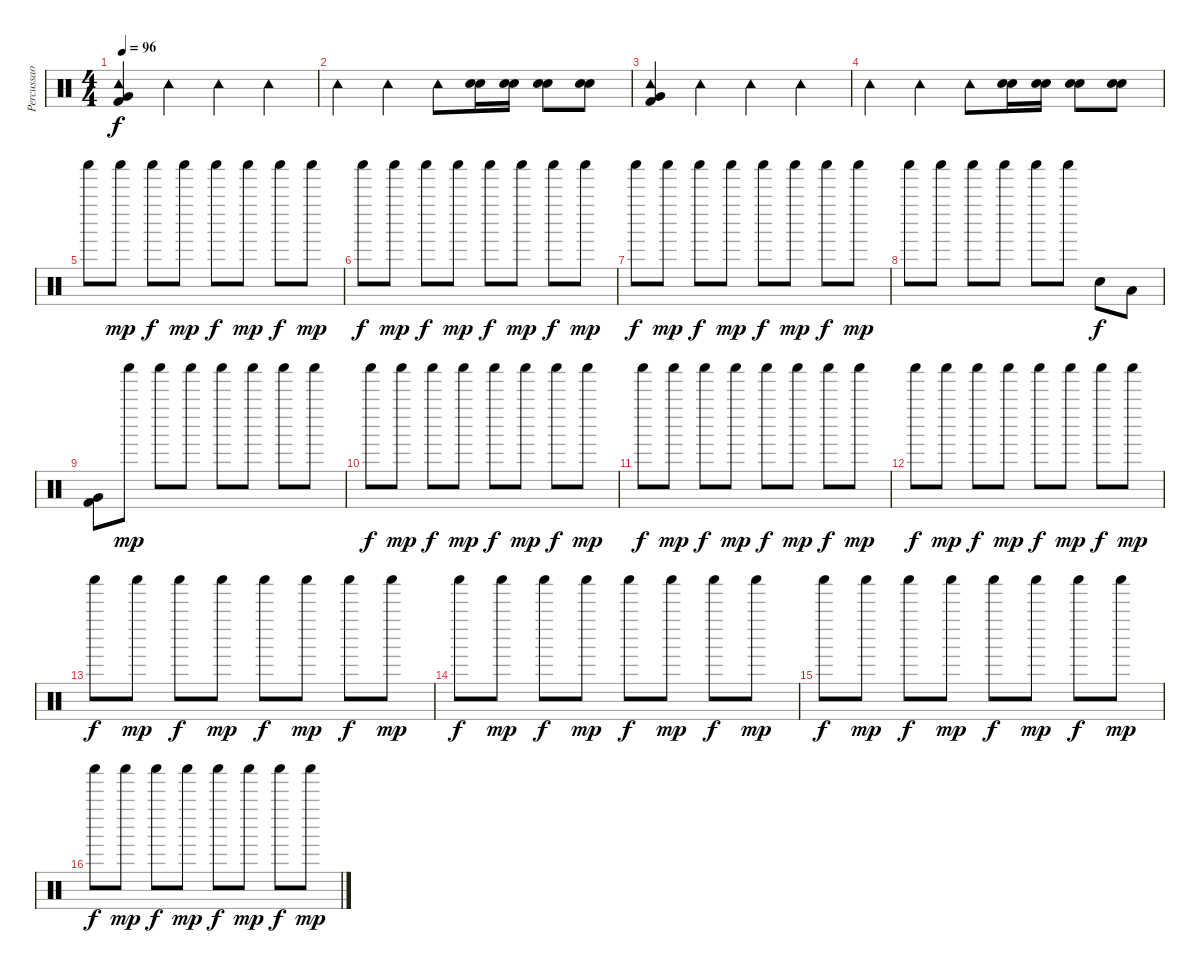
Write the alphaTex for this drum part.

\track ("Percussao" "Percussao") {instrument percussion}
\staff {score}
\articulation defaults
\ts (4 4)
\tempo 96
\clef neutral
\ks c
("Tambourine (hit)" "Very Low Tom (hit)" "Kick (hit) 2").4{dy f} "Tambourine (hit)".4 "Tambourine (hit)".4 "Tambourine (hit)".4 |
"Tambourine (hit)".4 "Tambourine (hit)".4 "Tambourine (hit)".8 ("Electric Snare (hit)" "Snare (hit) 2").16 ("Electric Snare (hit)" "Snare (hit) 2").16 ("Electric Snare (hit)" "Snare (hit) 2").8 ("Electric Snare (hit)" "Snare (hit) 2").8 |
("Tambourine (hit)" "Very Low Tom (hit)" "Kick (hit) 2").4 "Tambourine (hit)".4 "Tambourine (hit)".4 "Tambourine (hit)".4 |
"Tambourine (hit)".4 "Tambourine (hit)".4 "Tambourine (hit)".8 ("Electric Snare (hit)" "Snare (hit) 2").16 ("Electric Snare (hit)" "Snare (hit) 2").16 ("Electric Snare (hit)" "Snare (hit) 2").8 ("Electric Snare (hit)" "Snare (hit) 2").8 |
"Shaker (hit)".8{volume 4} "Shaker (hit)".8{dy mp} "Shaker (hit)".8{dy f} "Shaker (hit)".8{dy mp} "Shaker (hit)".8{dy f} "Shaker (hit)".8{dy mp} "Shaker (hit)".8{dy f} "Shaker (hit)".8{dy mp} |
"Shaker (hit)".8{dy f volume 4} "Shaker (hit)".8{dy mp} "Shaker (hit)".8{dy f} "Shaker (hit)".8{dy mp} "Shaker (hit)".8{dy f} "Shaker (hit)".8{dy mp} "Shaker (hit)".8{dy f} "Shaker (hit)".8{dy mp} |
"Shaker (hit)".8{dy f volume 4} "Shaker (hit)".8{dy mp} "Shaker (hit)".8{dy f} "Shaker (hit)".8{dy mp} "Shaker (hit)".8{dy f} "Shaker (hit)".8{dy mp} "Shaker (hit)".8{dy f} "Shaker (hit)".8{dy mp} |
"Shaker (hit)".8 "Shaker (hit)".8 "Shaker (hit)".8 "Shaker (hit)".8 "Shaker (hit)".8 "Shaker (hit)".8 "Electric Snare (hit)".8{dy f volume 13} "Low Tom (hit)".8 |
("Very Low Tom (hit)" "Kick (hit) 2").8 "Shaker (hit)".8{dy mp volume 4} "Shaker (hit)".8 "Shaker (hit)".8 "Shaker (hit)".8 "Shaker (hit)".8 "Shaker (hit)".8 "Shaker (hit)".8 |
"Shaker (hit)".8{dy f volume 4} "Shaker (hit)".8{dy mp} "Shaker (hit)".8{dy f} "Shaker (hit)".8{dy mp} "Shaker (hit)".8{dy f} "Shaker (hit)".8{dy mp} "Shaker (hit)".8{dy f} "Shaker (hit)".8{dy mp} |
"Shaker (hit)".8{dy f volume 4} "Shaker (hit)".8{dy mp} "Shaker (hit)".8{dy f} "Shaker (hit)".8{dy mp} "Shaker (hit)".8{dy f} "Shaker (hit)".8{dy mp} "Shaker (hit)".8{dy f} "Shaker (hit)".8{dy mp} |
"Shaker (hit)".8{dy f volume 4} "Shaker (hit)".8{dy mp} "Shaker (hit)".8{dy f} "Shaker (hit)".8{dy mp} "Shaker (hit)".8{dy f} "Shaker (hit)".8{dy mp} "Shaker (hit)".8{dy f} "Shaker (hit)".8{dy mp} |
"Shaker (hit)".8{dy f volume 4} "Shaker (hit)".8{dy mp} "Shaker (hit)".8{dy f} "Shaker (hit)".8{dy mp} "Shaker (hit)".8{dy f} "Shaker (hit)".8{dy mp} "Shaker (hit)".8{dy f} "Shaker (hit)".8{dy mp} |
"Shaker (hit)".8{dy f volume 4} "Shaker (hit)".8{dy mp} "Shaker (hit)".8{dy f} "Shaker (hit)".8{dy mp} "Shaker (hit)".8{dy f} "Shaker (hit)".8{dy mp} "Shaker (hit)".8{dy f} "Shaker (hit)".8{dy mp} |
"Shaker (hit)".8{dy f volume 4} "Shaker (hit)".8{dy mp} "Shaker (hit)".8{dy f} "Shaker (hit)".8{dy mp} "Shaker (hit)".8{dy f} "Shaker (hit)".8{dy mp} "Shaker (hit)".8{dy f} "Shaker (hit)".8{dy mp} |
"Shaker (hit)".8{dy f volume 4} "Shaker (hit)".8{dy mp} "Shaker (hit)".8{dy f} "Shaker (hit)".8{dy mp} "Shaker (hit)".8{dy f} "Shaker (hit)".8{dy mp} "Shaker (hit)".8{dy f} "Shaker (hit)".8{dy mp}
